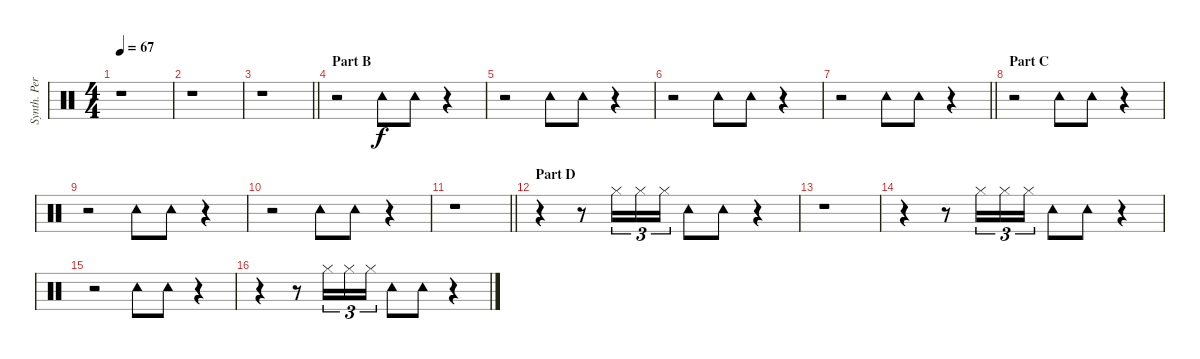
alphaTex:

\track ("Synth. Percussion" "Synth. Per") {instrument percussion}
\staff {score}
\articulation defaults
\ts (4 4)
\tempo 67
\clef neutral
\ks c
r.1{dy f} |
r.1 |
\barLineRight lightlight
r.1 |
\section ("" "Part B")
r.2 "Tambourine (hit)".8 "Tambourine (hit)".8 r.4 |
r.2 "Tambourine (hit)".8 "Tambourine (hit)".8 r.4 |
r.2 "Tambourine (hit)".8 "Tambourine (hit)".8 r.4 |
\barLineRight lightlight
r.2 "Tambourine (hit)".8 "Tambourine (hit)".8 r.4 |
\section ("" "Part C")
r.2 "Tambourine (hit)".8 "Tambourine (hit)".8 r.4 |
r.2 "Tambourine (hit)".8 "Tambourine (hit)".8 r.4 |
r.2 "Tambourine (hit)".8 "Tambourine (hit)".8 r.4 |
\barLineRight lightlight
r.1 |
\section ("" "Part D")
r.4 r.8 "Hi-Hat (closed)".16{tu (3 2)} "Hi-Hat (closed)".16{tu (3 2)} "Hi-Hat (closed)".16{tu (3 2)} "Tambourine (hit)".8 "Tambourine (hit)".8 r.4 |
r.1 |
r.4 r.8 "Hi-Hat (closed)".16{tu (3 2)} "Hi-Hat (closed)".16{tu (3 2)} "Hi-Hat (closed)".16{tu (3 2)} "Tambourine (hit)".8 "Tambourine (hit)".8 r.4 |
r.2 "Tambourine (hit)".8 "Tambourine (hit)".8 r.4 |
r.4 r.8 "Hi-Hat (closed)".16{tu (3 2)} "Hi-Hat (closed)".16{tu (3 2)} "Hi-Hat (closed)".16{tu (3 2)} "Tambourine (hit)".8 "Tambourine (hit)".8 r.4
